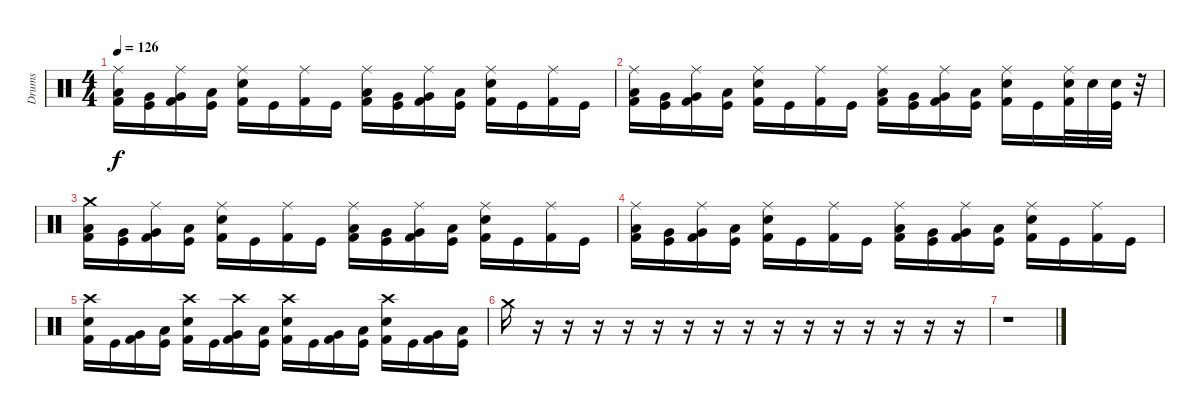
\track ("Drums" "Drums") {instrument percussion}
\staff {score}
\articulation defaults
\ts (4 4)
\tempo 126
\clef neutral
\ks c
("Ride (middle)" "Low Tom (hit)" "Kick (hit) 2").16{dy f} ("Very Low Tom (hit)" "Kick (hit)").16 ("Ride (middle)" "Very Low Tom (hit)" "Kick (hit) 2").16 ("Low Floor Tom (hit)" "Kick (hit)").16 ("Ride (middle)" "Snare (hit) 2" "Kick (hit) 2").16 "Kick (hit)".16 ("Ride (middle)" "Kick (hit) 2").16 "Kick (hit)".16 ("Ride (middle)" "Low Tom (hit)" "Kick (hit) 2").16 ("Very Low Tom (hit)" "Kick (hit)").16 ("Ride (middle)" "Very Low Tom (hit)" "Kick (hit) 2").16 ("Low Floor Tom (hit)" "Kick (hit)").16 ("Ride (middle)" "Snare (hit) 2" "Kick (hit) 2").16 "Kick (hit)".16 ("Ride (middle)" "Kick (hit) 2").16 "Kick (hit)".16 |
("Ride (middle)" "Low Tom (hit)" "Kick (hit) 2").16 ("Very Low Tom (hit)" "Kick (hit)").16 ("Ride (middle)" "Very Low Tom (hit)" "Kick (hit) 2").16 ("Low Floor Tom (hit)" "Kick (hit)").16 ("Ride (middle)" "Snare (hit) 2" "Kick (hit) 2").16 "Kick (hit)".16 ("Ride (middle)" "Kick (hit) 2").16 "Kick (hit)".16 ("Ride (middle)" "Low Tom (hit)" "Kick (hit) 2").16 ("Very Low Tom (hit)" "Kick (hit)").16 ("Ride (middle)" "Very Low Tom (hit)" "Kick (hit) 2").16 ("Low Floor Tom (hit)" "Kick (hit)").16 ("Ride (middle)" "Snare (hit) 2" "Kick (hit) 2").16 "Kick (hit)".16 ("Ride (middle)" "Snare (hit) 2" "Kick (hit) 2").32 "Snare (hit) 2".32 ("Snare (hit) 2" "Kick (hit)").32 r.32 |
("Crash medium (hit)" "Low Tom (hit)" "Kick (hit) 2").16 ("Very Low Tom (hit)" "Kick (hit)").16 ("Ride (middle)" "Very Low Tom (hit)" "Kick (hit) 2").16 ("Low Floor Tom (hit)" "Kick (hit)").16 ("Ride (middle)" "Snare (hit) 2" "Kick (hit) 2").16 "Kick (hit)".16 ("Ride (middle)" "Kick (hit) 2").16 "Kick (hit)".16 ("Ride (middle)" "Low Tom (hit)" "Kick (hit) 2").16 ("Very Low Tom (hit)" "Kick (hit)").16 ("Ride (middle)" "Very Low Tom (hit)" "Kick (hit) 2").16 ("Low Floor Tom (hit)" "Kick (hit)").16 ("Ride (middle)" "Snare (hit) 2" "Kick (hit) 2").16 "Kick (hit)".16 ("Ride (middle)" "Kick (hit) 2").16 "Kick (hit)".16 |
("Ride (middle)" "Low Tom (hit)" "Kick (hit) 2").16 ("Very Low Tom (hit)" "Kick (hit)").16 ("Ride (middle)" "Very Low Tom (hit)" "Kick (hit) 2").16 ("Low Floor Tom (hit)" "Kick (hit)").16 ("Ride (middle)" "Snare (hit) 2" "Kick (hit) 2").16 "Kick (hit)".16 ("Ride (middle)" "Kick (hit) 2").16 "Kick (hit)".16 ("Ride (middle)" "Low Tom (hit)" "Kick (hit) 2").16 ("Very Low Tom (hit)" "Kick (hit)").16 ("Ride (middle)" "Very Low Tom (hit)" "Kick (hit) 2").16 ("Low Floor Tom (hit)" "Kick (hit)").16 ("Ride (middle)" "Snare (hit) 2" "Kick (hit) 2").16 "Kick (hit)".16 ("Ride (middle)" "Kick (hit) 2").16 "Kick (hit)".16 |
("Crash high (hit)" "Snare (hit) 2" "Kick (hit) 2").16 "Kick (hit)".16 ("Very Low Tom (hit)" "Kick (hit) 2").16 ("Low Floor Tom (hit)" "Kick (hit)").16 ("Crash high (hit)" "Snare (hit) 2" "Kick (hit) 2").16 "Kick (hit)".16 ("Crash high (hit)" "Very Low Tom (hit)" "Kick (hit) 2").16 ("Low Floor Tom (hit)" "Kick (hit)").16 ("Crash high (hit)" "Snare (hit) 2" "Kick (hit) 2").16 "Kick (hit)".16 ("Very Low Tom (hit)" "Kick (hit) 2").16 ("Low Floor Tom (hit)" "Kick (hit)").16 ("Crash high (hit)" "Snare (hit) 2" "Kick (hit) 2").16 "Kick (hit)".16 ("Very Low Tom (hit)" "Kick (hit) 2").16 ("Low Floor Tom (hit)" "Kick (hit)").16 |
"Crash medium (hit)".16 r.16 r.16 r.16 r.16 r.16 r.16 r.16 r.16 r.16 r.16 r.16 r.16 r.16 r.16 r.16 |
r.1
